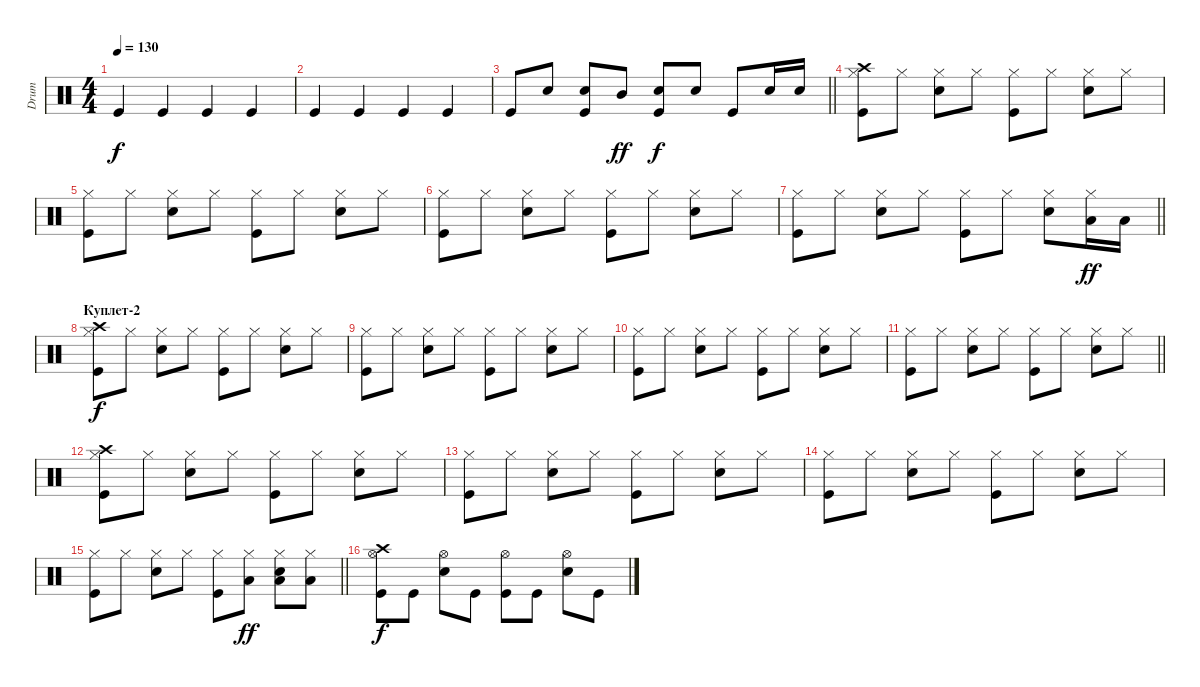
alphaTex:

\track ("Drum" "Drum") {instrument percussion}
\staff {score}
\articulation defaults
\ts (4 4)
\tempo 130
\clef neutral
\ks c "Kick (hit)".4{dy f} "Kick (hit)".4 "Kick (hit)".4 "Kick (hit)".4
|
"Kick (hit)".4 "Kick (hit)".4 "Kick (hit)".4 "Kick (hit)".4 |
\barLineRight lightlight "Kick (hit)".8 "Snare (hit) 2".8
("Kick (hit)" "Snare (hit) 2").8 "Mid Tom (hit)".8{dy ff} ("Kick (hit)" "Snare (hit) 2").8{dy f} "Snare (hit) 2".8 "Kick (hit)".8 "Snare (hit) 2".16 "Snare (hit) 2".16 |
("Kick (hit)" "Hi-Hat (closed)" "Crash high (hit)").8 "Hi-Hat (closed)".8 ("Snare (hit) 2" "Hi-Hat (closed)").8 "Hi-Hat (closed)".8 ("Kick (hit)" "Hi-Hat (closed)").8 "Hi-Hat (closed)".8 ("Snare (hit) 2" "Hi-Hat (closed)").8 "Hi-Hat (closed)".8 |
("Kick (hit)" "Hi-Hat (closed)").8 "Hi-Hat (closed)".8 ("Snare (hit) 2" "Hi-Hat (closed)").8 "Hi-Hat (closed)".8 ("Kick (hit)" "Hi-Hat (closed)").8 "Hi-Hat (closed)".8 ("Snare (hit) 2" "Hi-Hat (closed)").8 "Hi-Hat (closed)".8 |
("Kick (hit)" "Hi-Hat (closed)").8 "Hi-Hat (closed)".8 ("Snare (hit) 2" "Hi-Hat (closed)").8 "Hi-Hat (closed)".8 ("Kick (hit)" "Hi-Hat (closed)").8 "Hi-Hat (closed)".8 ("Snare (hit) 2" "Hi-Hat (closed)").8 "Hi-Hat (closed)".8 |
\barLineRight lightlight
("Kick (hit)" "Hi-Hat (closed)").8 "Hi-Hat (closed)".8 ("Snare (hit) 2" "Hi-Hat (closed)").8 "Hi-Hat (closed)".8 ("Kick (hit)" "Hi-Hat (closed)").8 "Hi-Hat (closed)".8 ("Snare (hit) 2" "Hi-Hat (closed)").8 ("Hi-Hat (closed)" "Low Tom (hit)").16{dy ff} "Low Tom (hit)".16 |
\section ("" "Куплет-2")
("Kick (hit)" "Hi-Hat (closed)" "Crash high (hit)").8{dy f} "Hi-Hat (closed)".8 ("Snare (hit) 2" "Hi-Hat (closed)").8 "Hi-Hat (closed)".8 ("Kick (hit)" "Hi-Hat (closed)").8 "Hi-Hat (closed)".8 ("Snare (hit) 2" "Hi-Hat (closed)").8 "Hi-Hat (closed)".8 |
("Kick (hit)" "Hi-Hat (closed)").8 "Hi-Hat (closed)".8 ("Snare (hit) 2" "Hi-Hat (closed)").8 "Hi-Hat (closed)".8 ("Kick (hit)" "Hi-Hat (closed)").8 "Hi-Hat (closed)".8 ("Snare (hit) 2" "Hi-Hat (closed)").8 "Hi-Hat (closed)".8 |
("Kick (hit)" "Hi-Hat (closed)").8 "Hi-Hat (closed)".8 ("Snare (hit) 2" "Hi-Hat (closed)").8 "Hi-Hat (closed)".8 ("Kick (hit)" "Hi-Hat (closed)").8 "Hi-Hat (closed)".8 ("Snare (hit) 2" "Hi-Hat (closed)").8 "Hi-Hat (closed)".8 |
\barLineRight lightlight
("Kick (hit)" "Hi-Hat (closed)").8 "Hi-Hat (closed)".8 ("Snare (hit) 2" "Hi-Hat (closed)").8 "Hi-Hat (closed)".8 ("Kick (hit)" "Hi-Hat (closed)").8 "Hi-Hat (closed)".8 ("Snare (hit) 2" "Hi-Hat (closed)").8 "Hi-Hat (closed)".8 |
("Kick (hit)" "Hi-Hat (closed)" "Crash high (hit)").8 "Hi-Hat (closed)".8 ("Snare (hit) 2" "Hi-Hat (closed)").8 "Hi-Hat (closed)".8 ("Kick (hit)" "Hi-Hat (closed)").8 "Hi-Hat (closed)".8 ("Snare (hit) 2" "Hi-Hat (closed)").8 "Hi-Hat (closed)".8 |
("Kick (hit)" "Hi-Hat (closed)").8 "Hi-Hat (closed)".8 ("Snare (hit) 2" "Hi-Hat (closed)").8 "Hi-Hat (closed)".8 ("Kick (hit)" "Hi-Hat (closed)").8 "Hi-Hat (closed)".8 ("Snare (hit) 2" "Hi-Hat (closed)").8 "Hi-Hat (closed)".8 |
("Kick (hit)" "Hi-Hat (closed)").8 "Hi-Hat (closed)".8 ("Snare (hit) 2" "Hi-Hat (closed)").8 "Hi-Hat (closed)".8 ("Kick (hit)" "Hi-Hat (closed)").8 "Hi-Hat (closed)".8 ("Snare (hit) 2" "Hi-Hat (closed)").8 "Hi-Hat (closed)".8 |
\barLineRight lightlight
("Kick (hit)" "Hi-Hat (closed)").8 "Hi-Hat (closed)".8 ("Snare (hit) 2" "Hi-Hat (closed)").8 "Hi-Hat (closed)".8 ("Kick (hit)" "Hi-Hat (closed)").8 ("Hi-Hat (closed)" "Low Tom (hit)").8{dy ff} ("Snare (hit) 2" "Hi-Hat (closed)" "Low Tom (hit)").8 ("Hi-Hat (closed)" "Low Tom (hit)").8 |
("Kick (hit)" "Hi-Hat (open)" "Crash high (hit)").8{dy f} "Kick (hit)".8 ("Snare (hit) 2" "Hi-Hat (open)").8 "Kick (hit)".8 ("Kick (hit)" "Hi-Hat (open)").8 "Kick (hit)".8 ("Snare (hit) 2" "Hi-Hat (open)").8 "Kick (hit)".8
